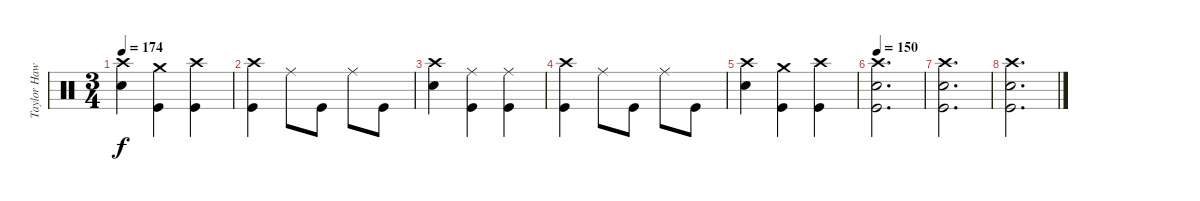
\track ("Taylor Hawkins - Drums" "Taylor Haw") {instrument percussion}
\staff {score}
\articulation defaults
\ts (3 4)
\tempo 174
\clef neutral
\ks c
("Crash high (hit)" "Snare (hit) 2").4{dy f} ("Crash medium (hit)" "Kick (hit)").4 ("Crash high (hit)" "Kick (hit)").4 |
("Crash high (hit)" "Kick (hit)").4 "Ride (middle)".8 "Kick (hit)".8 "Ride (middle)".8 "Kick (hit)".8 |
("Crash high (hit)" "Snare (hit) 2").4 ("Ride (middle)" "Kick (hit)").4 ("Ride (middle)" "Kick (hit)").4 |
("Crash high (hit)" "Kick (hit)").4 "Ride (middle)".8 "Kick (hit)".8 "Ride (middle)".8 "Kick (hit)".8 |
("Crash high (hit)" "Snare (hit) 2").4 ("Crash medium (hit)" "Kick (hit)").4 ("Crash high (hit)" "Kick (hit)").4 |
\tempo 150
("Crash high (hit)" "Snare (hit) 2" "Kick (hit)").2{d} |
("Crash high (hit)" "Snare (hit) 2" "Kick (hit)").2{d} |
("Crash high (hit)" "Snare (hit) 2" "Kick (hit)").2{d}
